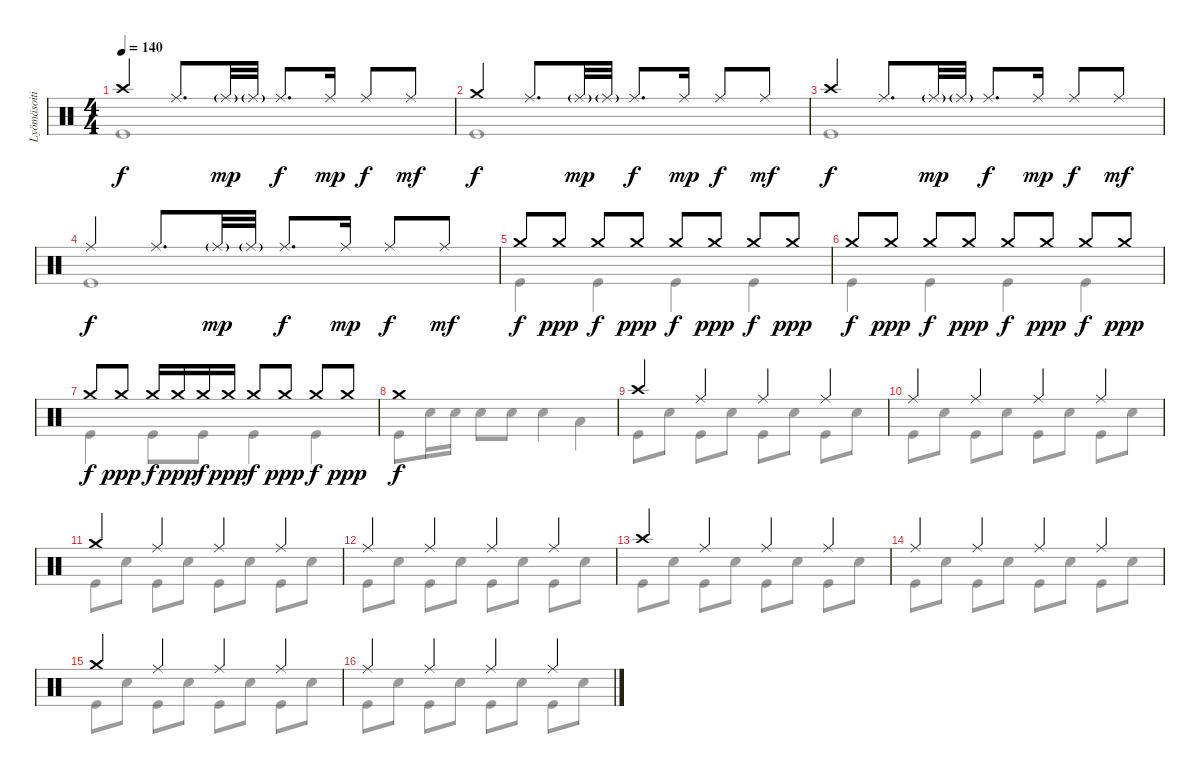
\track ("Lyömäsoitin" "Lyömäsoiti") {instrument percussion}
\staff {score}
\articulation defaults
\voice
\ts (4 4)
\tempo 140
\clef neutral
\ks c "Crash high (hit)".4{dy f} "Ride (middle)".8{d} "Ride (middle)"{g}.32{dy mp} "Ride (middle)"{g}.32 "Ride (middle)".8{d dy f} "Ride (middle)".16{dy mp} "Ride (middle)".8{dy f} "Ride (middle)".8{dy mf}
|
"Crash medium (hit)".4{dy f} "Ride (middle)".8{d} "Ride (middle)"{g}.32{dy mp} "Ride (middle)"{g}.32 "Ride (middle)".8{d dy f} "Ride (middle)".16{dy mp} "Ride (middle)".8{dy f} "Ride (middle)".8{dy mf} |
"Crash high (hit)".4{dy f} "Ride (middle)".8{d} "Ride (middle)"{g}.32{dy mp} "Ride (middle)"{g}.32 "Ride (middle)".8{d dy f} "Ride (middle)".16{dy mp} "Ride (middle)".8{dy f} "Ride (middle)".8{dy mf} |
"Ride (middle)".4{dy f} "Ride (middle)".8{d} "Ride (middle)"{g}.32{dy mp} "Ride (middle)"{g}.32 "Ride (middle)".8{d dy f} "Ride (middle)".16{dy mp} "Ride (middle)".8{dy f} "Ride (middle)".8{dy mf} |
"Crash medium (hit)".8{dy f} "Crash medium (hit)".8{dy ppp} "Crash medium (hit)".8{dy f} "Crash medium (hit)".8{dy ppp} "Crash medium (hit)".8{dy f} "Crash medium (hit)".8{dy ppp} "Crash medium (hit)".8{dy f} "Crash medium (hit)".8{dy ppp} |
"Crash medium (hit)".8{dy f} "Crash medium (hit)".8{dy ppp} "Crash medium (hit)".8{dy f} "Crash medium (hit)".8{dy ppp} "Crash medium (hit)".8{dy f} "Crash medium (hit)".8{dy ppp} "Crash medium (hit)".8{dy f} "Crash medium (hit)".8{dy ppp} |
"Crash medium (hit)".8{dy f} "Crash medium (hit)".8{dy ppp} "Crash medium (hit)".16{dy f} "Crash medium (hit)".16{dy ppp} "Crash medium (hit)".16{dy f} "Crash medium (hit)".16{dy ppp} "Crash medium (hit)".8{dy f} "Crash medium (hit)".8{dy ppp} "Crash medium (hit)".8{dy f} "Crash medium (hit)".8{dy ppp} |
"Crash medium (hit)".1{dy f} |
"Crash high (hit)".4 "Ride (middle)".4 "Ride (middle)".4 "Ride (middle)".4 |
"Ride (middle)".4 "Ride (middle)".4 "Ride (middle)".4 "Ride (middle)".4 |
"Crash medium (hit)".4 "Ride (middle)".4 "Ride (middle)".4 "Ride (middle)".4 |
"Ride (middle)".4 "Ride (middle)".4 "Ride (middle)".4 "Ride (middle)".4 |
"Crash high (hit)".4 "Ride (middle)".4 "Ride (middle)".4 "Ride (middle)".4 |
"Ride (middle)".4 "Ride (middle)".4 "Ride (middle)".4 "Ride (middle)".4 |
"Crash medium (hit)".4 "Ride (middle)".4 "Ride (middle)".4 "Ride (middle)".4 |
"Ride (middle)".4 "Ride (middle)".4 "Ride (middle)".4 "Ride (middle)".4
\voice
\clef neutral
\ottava regular
\simile none
\ks c "Kick (hit)".1{dy f}
|
"Kick (hit)".1 |
"Kick (hit)".1 |
"Kick (hit)".1 |
"Kick (hit)".4 "Kick (hit)".4 "Kick (hit)".4 "Kick (hit)".4 |
"Kick (hit)".4 "Kick (hit)".4 "Kick (hit)".4 "Kick (hit)".4 |
"Kick (hit)".4 "Kick (hit)".8 "Kick (hit)".8 "Kick (hit)".4 "Kick (hit)".4 |
"Kick (hit)".8 "Snare (hit) 2".16 "Snare (hit) 2".16 "Snare (hit) 2".8 "Snare (hit) 2".8 "Snare (hit) 2".4 "Low Tom (hit)".4 |
"Kick (hit)".8 "Snare (hit) 2".8 "Kick (hit)".8 "Snare (hit) 2".8 "Kick (hit)".8 "Snare (hit) 2".8 "Kick (hit)".8 "Snare (hit) 2".8 |
"Kick (hit)".8 "Snare (hit) 2".8 "Kick (hit)".8 "Snare (hit) 2".8 "Kick (hit)".8 "Snare (hit) 2".8 "Kick (hit)".8 "Snare (hit) 2".8 |
"Kick (hit)".8 "Snare (hit) 2".8 "Kick (hit)".8 "Snare (hit) 2".8 "Kick (hit)".8 "Snare (hit) 2".8 "Kick (hit)".8 "Snare (hit) 2".8 |
"Kick (hit)".8 "Snare (hit) 2".8 "Kick (hit)".8 "Snare (hit) 2".8 "Kick (hit)".8 "Snare (hit) 2".8 "Kick (hit)".8 "Snare (hit) 2".8 |
"Kick (hit)".8 "Snare (hit) 2".8 "Kick (hit)".8 "Snare (hit) 2".8 "Kick (hit)".8 "Snare (hit) 2".8 "Kick (hit)".8 "Snare (hit) 2".8 |
"Kick (hit)".8 "Snare (hit) 2".8 "Kick (hit)".8 "Snare (hit) 2".8 "Kick (hit)".8 "Snare (hit) 2".8 "Kick (hit)".8 "Snare (hit) 2".8 |
"Kick (hit)".8 "Snare (hit) 2".8 "Kick (hit)".8 "Snare (hit) 2".8 "Kick (hit)".8 "Snare (hit) 2".8 "Kick (hit)".8 "Snare (hit) 2".8 |
"Kick (hit)".8 "Snare (hit) 2".8 "Kick (hit)".8 "Snare (hit) 2".8 "Kick (hit)".8 "Snare (hit) 2".8 "Kick (hit)".8 "Snare (hit) 2".8
